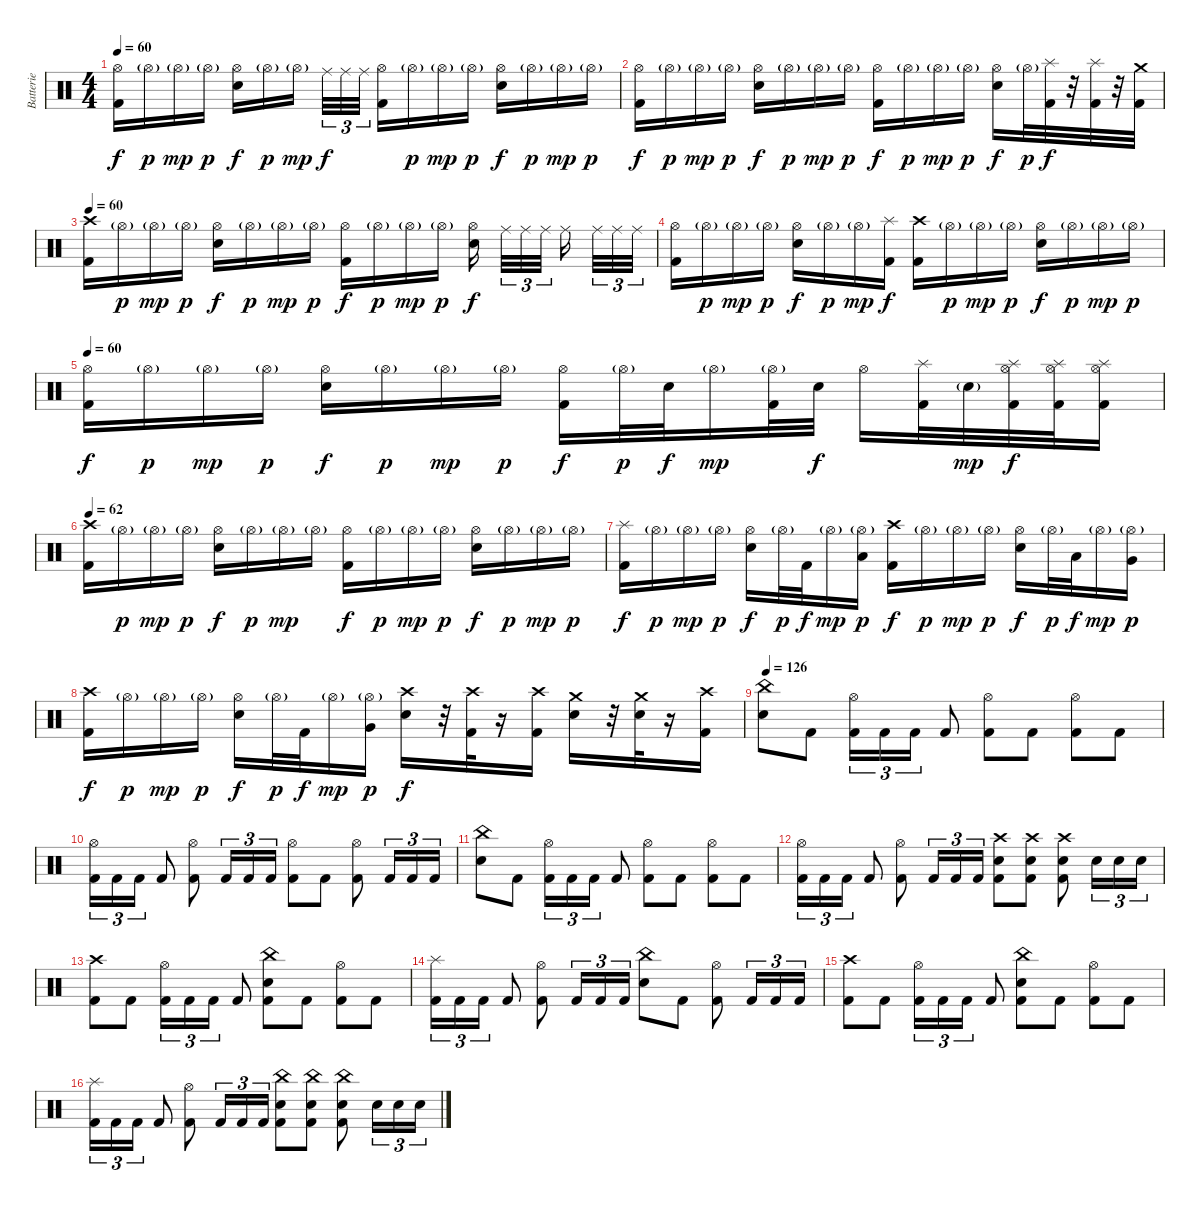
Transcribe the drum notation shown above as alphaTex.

\track ("Batterie" "Batterie") {instrument percussion}
\staff {score}
\articulation defaults
\ts (4 4)
\tempo 60
\clef neutral
\ks c
("Hi-Hat (open)" "Kick (hit) 2").16{dy f} "Hi-Hat (open)"{g}.16{dy p} "Hi-Hat (open)"{g}.16{dy mp} "Hi-Hat (open)"{g}.16{dy p} ("Electric Snare (hit)" "Hi-Hat (open)").16{dy f} "Hi-Hat (open)"{g}.16{dy p} "Hi-Hat (open)"{g}.16{dy mp} "Ride (middle)".32{tu (3 2) dy f} "Ride (middle)".32{tu (3 2)} "Ride (middle)".32{tu (3 2)} ("Hi-Hat (open)" "Kick (hit) 2").16 "Hi-Hat (open)"{g}.16{dy p} "Hi-Hat (open)"{g}.16{dy mp} "Hi-Hat (open)"{g}.16{dy p} ("Hi-Hat (open)" "Electric Snare (hit)").16{dy f} "Hi-Hat (open)"{g}.16{dy p} "Hi-Hat (open)"{g}.16{dy mp} "Hi-Hat (open)"{g}.16{dy p} |
("Hi-Hat (open)" "Kick (hit) 2").16{dy f} "Hi-Hat (open)"{g}.16{dy p} "Hi-Hat (open)"{g}.16{dy mp} "Hi-Hat (open)"{g}.16{dy p} ("Electric Snare (hit)" "Hi-Hat (open)").16{dy f} "Hi-Hat (open)"{g}.16{dy p} "Hi-Hat (open)"{g}.16{dy mp} "Hi-Hat (open)"{g}.16{dy p} ("Hi-Hat (open)" "Kick (hit) 2").16{dy f} "Hi-Hat (open)"{g}.16{dy p} "Hi-Hat (open)"{g}.16{dy mp} "Hi-Hat (open)"{g}.16{dy p} ("Hi-Hat (open)" "Electric Snare (hit)").16{dy f} "Hi-Hat (open)"{g}.32{dy p} ("Splash (hit)" "Kick (hit) 2").32{dy f} r.32 ("Splash (hit)" "Kick (hit) 2").32 r.32 ("Crash medium (hit)" "Kick (hit) 2").32 |
\tempo 60
("Crash high (hit)" "Kick (hit) 2").16 "Hi-Hat (open)"{g}.16{dy p} "Hi-Hat (open)"{g}.16{dy mp} "Hi-Hat (open)"{g}.16{dy p} ("Electric Snare (hit)" "Hi-Hat (open)").16{dy f} "Hi-Hat (open)"{g}.16{dy p} "Hi-Hat (open)"{g}.16{dy mp} "Hi-Hat (open)"{g}.16{dy p} ("Kick (hit) 2" "Hi-Hat (open)").16{dy f} "Hi-Hat (open)"{g}.16{dy p} "Hi-Hat (open)"{g}.16{dy mp} "Hi-Hat (open)"{g}.16{dy p} ("Electric Snare (hit)" "Hi-Hat (open)").16{dy f} "Ride (middle)".32{tu (3 2)} "Ride (middle)".32{tu (3 2)} "Ride (middle)".32{tu (3 2)} "Ride (middle)".16 "Ride (middle)".32{tu (3 2)} "Ride (middle)".32{tu (3 2)} "Ride (middle)".32{tu (3 2)} |
("Hi-Hat (open)" "Kick (hit) 2").16 "Hi-Hat (open)"{g}.16{dy p} "Hi-Hat (open)"{g}.16{dy mp} "Hi-Hat (open)"{g}.16{dy p} ("Hi-Hat (open)" "Electric Snare (hit)").16{dy f} "Hi-Hat (open)"{g}.16{dy p} "Hi-Hat (open)"{g}.16{dy mp} ("Splash (hit)" "Kick (hit) 2").16{dy f} ("Crash high (hit)" "Kick (hit) 2").16 "Hi-Hat (open)"{g}.16{dy p} "Hi-Hat (open)"{g}.16{dy mp} "Hi-Hat (open)"{g}.16{dy p} ("Hi-Hat (open)" "Electric Snare (hit)").16{dy f} "Hi-Hat (open)"{g}.16{dy p} "Hi-Hat (open)"{g}.16{dy mp} "Hi-Hat (open)"{g}.16{dy p} |
\tempo 60
("Hi-Hat (open)" "Kick (hit) 2").16{dy f} "Hi-Hat (open)"{g}.16{dy p} "Hi-Hat (open)"{g}.16{dy mp} "Hi-Hat (open)"{g}.16{dy p} ("Hi-Hat (open)" "Electric Snare (hit)").16{dy f} "Hi-Hat (open)"{g}.16{dy p} "Hi-Hat (open)"{g}.16{dy mp} "Hi-Hat (open)"{g}.16{dy p} ("Hi-Hat (open)" "Kick (hit) 2").16{dy f} "Hi-Hat (open)"{g}.32{dy p} "Electric Snare (hit)".32{dy f} "Hi-Hat (open)"{g}.16{dy mp} ("Hi-Hat (open)"{g} "Kick (hit) 2").32 "Electric Snare (hit)".32{dy f} "Hi-Hat (open)".16 ("Splash (hit)" "Kick (hit) 2").32 "Electric Snare (hit)"{g}.32{dy mp} ("Splash (hit)" "Hi-Hat (open)" "Kick (hit) 2").32{dy f} ("Splash (hit)" "Hi-Hat (open)" "Kick (hit) 2").32 ("Splash (hit)" "Hi-Hat (open)" "Kick (hit) 2").16 |
\tempo 62
("Crash high (hit)" "Kick (hit) 2").16 "Hi-Hat (open)"{g}.16{dy p} "Hi-Hat (open)"{g}.16{dy mp} "Hi-Hat (open)"{g}.16{dy p} ("Hi-Hat (open)" "Electric Snare (hit)").16{dy f} "Hi-Hat (open)"{g}.16{dy p} "Hi-Hat (open)"{g}.16{dy mp} "Hi-Hat (open)"{g}.16 ("Hi-Hat (open)" "Kick (hit) 2").16{dy f} "Hi-Hat (open)"{g}.16{dy p} "Hi-Hat (open)"{g}.16{dy mp} "Hi-Hat (open)"{g}.16{dy p} ("Hi-Hat (open)" "Electric Snare (hit)").16{dy f} "Hi-Hat (open)"{g}.16{dy p} "Hi-Hat (open)"{g}.16{dy mp} "Hi-Hat (open)"{g}.16{dy p} |
("Splash (hit)" "Kick (hit) 2").16{dy f} "Hi-Hat (open)"{g}.16{dy p} "Hi-Hat (open)"{g}.16{dy mp} "Hi-Hat (open)"{g}.16{dy p} ("Hi-Hat (open)" "Electric Snare (hit)").16{dy f} "Hi-Hat (open)"{g}.32{dy p} "Kick (hit) 2".32{dy f} "Hi-Hat (open)"{g}.16{dy mp} ("Hi-Hat (open)"{g} "Low Tom (hit)").16{dy p} ("Crash high (hit)" "Kick (hit) 2").16{dy f} "Hi-Hat (open)"{g}.16{dy p} "Hi-Hat (open)"{g}.16{dy mp} "Hi-Hat (open)"{g}.16{dy p} ("Hi-Hat (open)" "Electric Snare (hit)").16{dy f} "Hi-Hat (open)"{g}.32{dy p} "Low Tom (hit)".32{dy f} "Hi-Hat (open)"{g}.16{dy mp} ("Hi-Hat (open)"{g} "Very Low Tom (hit)").16{dy p} |
("Crash high (hit)" "Kick (hit) 2").16{dy f} "Hi-Hat (open)"{g}.16{dy p} "Hi-Hat (open)"{g}.16{dy mp} "Hi-Hat (open)"{g}.16{dy p} ("Hi-Hat (open)" "Electric Snare (hit)").16{dy f} "Hi-Hat (open)"{g}.32{dy p} "Kick (hit) 2".32{dy f} "Hi-Hat (open)"{g}.16{dy mp} ("Hi-Hat (open)"{g} "Very Low Tom (hit)").16{dy p} ("Crash high (hit)" "Electric Snare (hit)").16{dy f} r.32 ("Crash high (hit)" "Kick (hit) 2").32 r.16 ("Crash high (hit)" "Kick (hit) 2").16 ("Crash medium (hit)" "Electric Snare (hit)").16 r.32 ("Crash medium (hit)" "Electric Snare (hit)").32 r.16 ("Crash high (hit)" "Kick (hit) 2").16 |
\tempo 126
("Electric Snare (hit)" "China (hit)").8 "Kick (hit) 2".8 ("Hi-Hat (open)" "Kick (hit) 2").16{tu (3 2)} "Kick (hit) 2".16{tu (3 2)} "Kick (hit) 2".16{tu (3 2)} "Kick (hit) 2".8 ("Hi-Hat (open)" "Kick (hit) 2").8 "Kick (hit) 2".8 ("Hi-Hat (open)" "Kick (hit) 2").8 "Kick (hit) 2".8 |
("Hi-Hat (open)" "Kick (hit) 2").16{tu (3 2)} "Kick (hit) 2".16{tu (3 2)} "Kick (hit) 2".16{tu (3 2)} "Kick (hit) 2".8 ("Hi-Hat (open)" "Kick (hit) 2").8 "Kick (hit) 2".16{tu (3 2)} "Kick (hit) 2".16{tu (3 2)} "Kick (hit) 2".16{tu (3 2)} ("Hi-Hat (open)" "Kick (hit) 2").8 "Kick (hit) 2".8 ("Hi-Hat (open)" "Kick (hit) 2").8 "Kick (hit) 2".16{tu (3 2)} "Kick (hit) 2".16{tu (3 2)} "Kick (hit) 2".16{tu (3 2)} |
("Electric Snare (hit)" "China (hit)").8 "Kick (hit) 2".8 ("Hi-Hat (open)" "Kick (hit) 2").16{tu (3 2)} "Kick (hit) 2".16{tu (3 2)} "Kick (hit) 2".16{tu (3 2)} "Kick (hit) 2".8 ("Hi-Hat (open)" "Kick (hit) 2").8 "Kick (hit) 2".8 ("Hi-Hat (open)" "Kick (hit) 2").8 "Kick (hit) 2".8 |
("Hi-Hat (open)" "Kick (hit) 2").16{tu (3 2)} "Kick (hit) 2".16{tu (3 2)} "Kick (hit) 2".16{tu (3 2)} "Kick (hit) 2".8 ("Hi-Hat (open)" "Kick (hit) 2").8 "Kick (hit) 2".16{tu (3 2)} "Kick (hit) 2".16{tu (3 2)} "Kick (hit) 2".16{tu (3 2)} ("Crash high (hit)" "Electric Snare (hit)" "Kick (hit) 2").8 ("Crash high (hit)" "Electric Snare (hit)" "Kick (hit) 2").8 ("Crash high (hit)" "Electric Snare (hit)" "Kick (hit) 2").8 "Electric Snare (hit)".16{tu (3 2)} "Electric Snare (hit)".16{tu (3 2)} "Electric Snare (hit)".16{tu (3 2)} |
("Crash high (hit)" "Kick (hit) 2").8 "Kick (hit) 2".8 ("Hi-Hat (open)" "Kick (hit) 2").16{tu (3 2)} "Kick (hit) 2".16{tu (3 2)} "Kick (hit) 2".16{tu (3 2)} "Kick (hit) 2".8 ("China (hit)" "Electric Snare (hit)" "Kick (hit) 2").8 "Kick (hit) 2".8 ("Hi-Hat (open)" "Kick (hit) 2").8 "Kick (hit) 2".8 |
("Splash (hit)" "Kick (hit) 2").16{tu (3 2)} "Kick (hit) 2".16{tu (3 2)} "Kick (hit) 2".16{tu (3 2)} "Kick (hit) 2".8 ("Hi-Hat (open)" "Kick (hit) 2").8 "Kick (hit) 2".16{tu (3 2)} "Kick (hit) 2".16{tu (3 2)} "Kick (hit) 2".16{tu (3 2)} ("China (hit)" "Electric Snare (hit)").8 "Kick (hit) 2".8 ("Hi-Hat (open)" "Kick (hit) 2").8 "Kick (hit) 2".16{tu (3 2)} "Kick (hit) 2".16{tu (3 2)} "Kick (hit) 2".16{tu (3 2)} |
("Crash high (hit)" "Kick (hit) 2").8 "Kick (hit) 2".8 ("Hi-Hat (open)" "Kick (hit) 2").16{tu (3 2)} "Kick (hit) 2".16{tu (3 2)} "Kick (hit) 2".16{tu (3 2)} "Kick (hit) 2".8 ("China (hit)" "Electric Snare (hit)" "Kick (hit) 2").8 "Kick (hit) 2".8 ("Hi-Hat (open)" "Kick (hit) 2").8 "Kick (hit) 2".8 |
("Splash (hit)" "Kick (hit) 2").16{tu (3 2)} "Kick (hit) 2".16{tu (3 2)} "Kick (hit) 2".16{tu (3 2)} "Kick (hit) 2".8 ("Hi-Hat (open)" "Kick (hit) 2").8 "Kick (hit) 2".16{tu (3 2)} "Kick (hit) 2".16{tu (3 2)} "Kick (hit) 2".16{tu (3 2)} ("China (hit)" "Electric Snare (hit)" "Kick (hit) 2").8 ("China (hit)" "Electric Snare (hit)" "Kick (hit) 2").8 ("China (hit)" "Electric Snare (hit)" "Kick (hit) 2").8 "Electric Snare (hit)".16{tu (3 2)} "Electric Snare (hit)".16{tu (3 2)} "Electric Snare (hit)".16{tu (3 2)}
